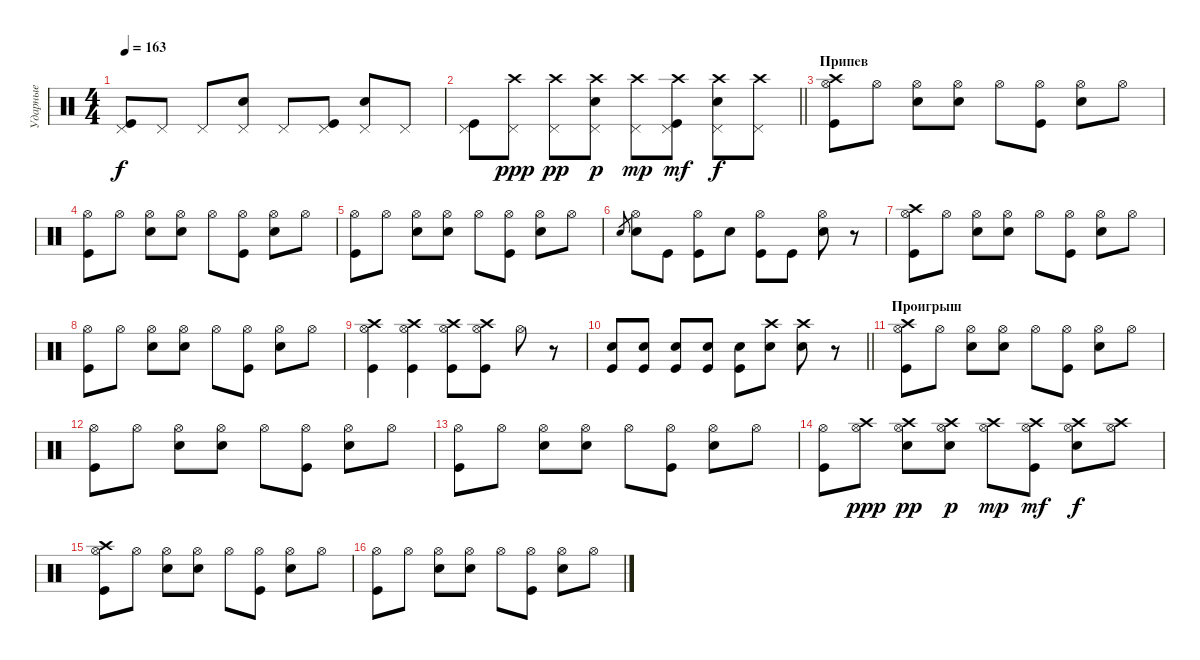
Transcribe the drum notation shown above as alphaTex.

\track ("Ударные" "Ударные") {instrument percussion}
\staff {score}
\articulation defaults
\ts (4 4)
\tempo 163
\clef neutral
\ks c
("Kick (hit)" "Pedal Hi-Hat (hit)").8{dy f} "Pedal Hi-Hat (hit)".8 "Pedal Hi-Hat (hit)".8 ("Pedal Hi-Hat (hit)" "Snare (hit) 2").8 "Pedal Hi-Hat (hit)".8 ("Kick (hit)" "Pedal Hi-Hat (hit)").8 ("Pedal Hi-Hat (hit)" "Snare (hit) 2").8 "Pedal Hi-Hat (hit)".8 |
\barLineRight lightlight
("Kick (hit)" "Pedal Hi-Hat (hit)").8 ("Pedal Hi-Hat (hit)" "Crash high (hit)").8{dy ppp} ("Pedal Hi-Hat (hit)" "Crash high (hit)").8{dy pp} ("Pedal Hi-Hat (hit)" "Snare (hit) 2" "Crash high (hit)").8{dy p} ("Pedal Hi-Hat (hit)" "Crash high (hit)").8{dy mp} ("Kick (hit)" "Pedal Hi-Hat (hit)" "Crash high (hit)").8{dy mf} ("Pedal Hi-Hat (hit)" "Snare (hit) 2" "Crash high (hit)").8{dy f} ("Pedal Hi-Hat (hit)" "Crash high (hit)").8 |
\section ("" "Припев")
("Kick (hit)" "Hi-Hat (open)" "Crash high (hit)").8 "Hi-Hat (open)".8 ("Hi-Hat (open)" "Snare (hit) 2").8 ("Hi-Hat (open)" "Snare (hit) 2").8 "Hi-Hat (open)".8 ("Kick (hit)" "Hi-Hat (open)").8 ("Hi-Hat (open)" "Snare (hit) 2").8 "Hi-Hat (open)".8 |
("Kick (hit)" "Hi-Hat (open)").8 "Hi-Hat (open)".8 ("Hi-Hat (open)" "Snare (hit) 2").8 ("Hi-Hat (open)" "Snare (hit) 2").8 "Hi-Hat (open)".8 ("Kick (hit)" "Hi-Hat (open)").8 ("Hi-Hat (open)" "Snare (hit) 2").8 "Hi-Hat (open)".8 |
("Kick (hit)" "Hi-Hat (open)").8 "Hi-Hat (open)".8 ("Hi-Hat (open)" "Snare (hit) 2").8 ("Hi-Hat (open)" "Snare (hit) 2").8 "Hi-Hat (open)".8 ("Kick (hit)" "Hi-Hat (open)").8 ("Hi-Hat (open)" "Snare (hit) 2").8 "Hi-Hat (open)".8 |
"Snare (hit) 2".8{gr} ("Hi-Hat (open)" "Snare (hit) 2").8 "Kick (hit)".8 ("Kick (hit)" "Hi-Hat (open)").8 "Snare (hit) 2".8 ("Kick (hit)" "Hi-Hat (open)").8 "Kick (hit)".8 ("Hi-Hat (open)" "Snare (hit) 2").8 r.8 |
("Kick (hit)" "Hi-Hat (open)" "Crash high (hit)").8 "Hi-Hat (open)".8 ("Hi-Hat (open)" "Snare (hit) 2").8 ("Hi-Hat (open)" "Snare (hit) 2").8 "Hi-Hat (open)".8 ("Kick (hit)" "Hi-Hat (open)").8 ("Hi-Hat (open)" "Snare (hit) 2").8 "Hi-Hat (open)".8 |
("Kick (hit)" "Hi-Hat (open)").8 "Hi-Hat (open)".8 ("Hi-Hat (open)" "Snare (hit) 2").8 ("Hi-Hat (open)" "Snare (hit) 2").8 "Hi-Hat (open)".8 ("Kick (hit)" "Hi-Hat (open)").8 ("Hi-Hat (open)" "Snare (hit) 2").8 "Hi-Hat (open)".8 |
("Kick (hit)" "Hi-Hat (open)" "Crash high (hit)").4 ("Kick (hit)" "Hi-Hat (open)" "Crash high (hit)").4 ("Kick (hit)" "Hi-Hat (open)" "Crash high (hit)").8 ("Kick (hit)" "Hi-Hat (open)" "Crash high (hit)").8 "Hi-Hat (open)".8 r.8 |
\barLineRight lightlight
("Kick (hit)" "Snare (hit) 2").8 ("Kick (hit)" "Snare (hit) 2").8 ("Kick (hit)" "Snare (hit) 2").8 ("Kick (hit)" "Snare (hit) 2").8 ("Kick (hit)" "Snare (hit) 2").8 ("Snare (hit) 2" "Crash high (hit)").8 ("Snare (hit) 2" "Crash high (hit)").8 r.8 |
\section ("" "Проигрыш")
("Kick (hit)" "Hi-Hat (open)" "Crash high (hit)").8 "Hi-Hat (open)".8 ("Hi-Hat (open)" "Snare (hit) 2").8 ("Hi-Hat (open)" "Snare (hit) 2").8 "Hi-Hat (open)".8 ("Kick (hit)" "Hi-Hat (open)").8 ("Hi-Hat (open)" "Snare (hit) 2").8 "Hi-Hat (open)".8 |
("Kick (hit)" "Hi-Hat (open)").8 "Hi-Hat (open)".8 ("Hi-Hat (open)" "Snare (hit) 2").8 ("Hi-Hat (open)" "Snare (hit) 2").8 "Hi-Hat (open)".8 ("Kick (hit)" "Hi-Hat (open)").8 ("Hi-Hat (open)" "Snare (hit) 2").8 "Hi-Hat (open)".8 |
("Kick (hit)" "Hi-Hat (open)").8 "Hi-Hat (open)".8 ("Hi-Hat (open)" "Snare (hit) 2").8 ("Hi-Hat (open)" "Snare (hit) 2").8 "Hi-Hat (open)".8 ("Kick (hit)" "Hi-Hat (open)").8 ("Hi-Hat (open)" "Snare (hit) 2").8 "Hi-Hat (open)".8 |
("Kick (hit)" "Hi-Hat (open)").8 ("Hi-Hat (open)" "Crash high (hit)").8{dy ppp} ("Hi-Hat (open)" "Snare (hit) 2" "Crash high (hit)").8{dy pp} ("Hi-Hat (open)" "Snare (hit) 2" "Crash high (hit)").8{dy p} ("Hi-Hat (open)" "Crash high (hit)").8{dy mp} ("Kick (hit)" "Hi-Hat (open)" "Crash high (hit)").8{dy mf} ("Hi-Hat (open)" "Snare (hit) 2" "Crash high (hit)").8{dy f} ("Hi-Hat (open)" "Crash high (hit)").8 |
("Kick (hit)" "Hi-Hat (open)" "Crash high (hit)").8 "Hi-Hat (open)".8 ("Hi-Hat (open)" "Snare (hit) 2").8 ("Hi-Hat (open)" "Snare (hit) 2").8 "Hi-Hat (open)".8 ("Kick (hit)" "Hi-Hat (open)").8 ("Hi-Hat (open)" "Snare (hit) 2").8 "Hi-Hat (open)".8 |
("Kick (hit)" "Hi-Hat (open)").8 "Hi-Hat (open)".8 ("Hi-Hat (open)" "Snare (hit) 2").8 ("Hi-Hat (open)" "Snare (hit) 2").8 "Hi-Hat (open)".8 ("Kick (hit)" "Hi-Hat (open)").8 ("Hi-Hat (open)" "Snare (hit) 2").8 "Hi-Hat (open)".8
